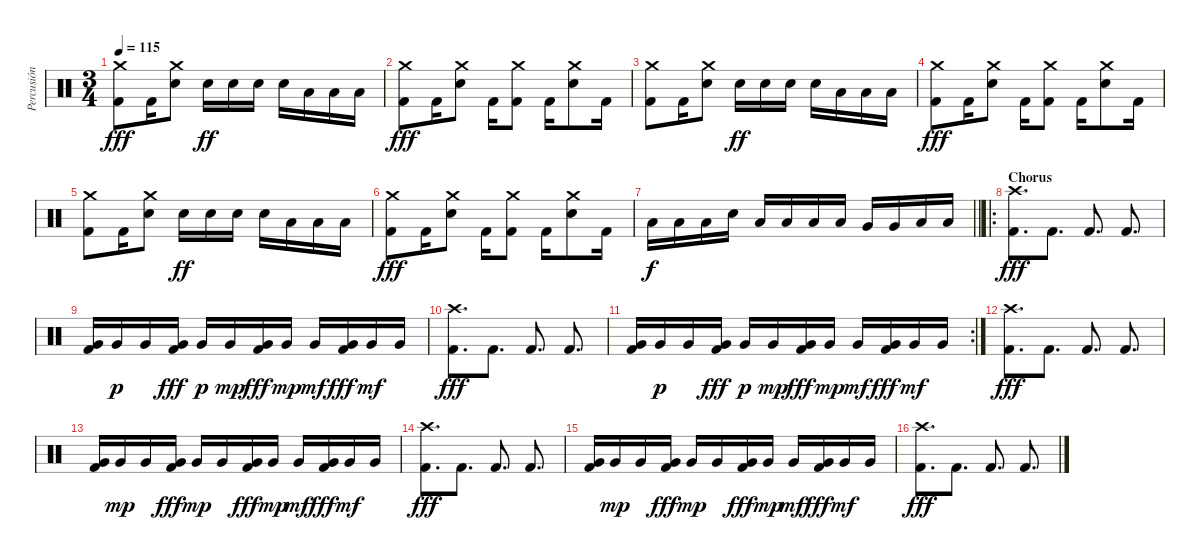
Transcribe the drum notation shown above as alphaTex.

\track ("Percusión" "Percusión") {instrument percussion}
\staff {score}
\articulation defaults
\ts (3 4)
\tempo 115
\clef neutral
\ks c
("Crash medium (hit)" "Kick (hit) 2").8{dy fff} "Kick (hit) 2".16 ("Crash medium (hit)" "Electric Snare (hit)").8 "Electric Snare (hit)".16{dy ff} "Electric Snare (hit)".16 "Electric Snare (hit)".16 "Electric Snare (hit)".16 "Low Tom (hit)".16 "Low Tom (hit)".16 "Low Tom (hit)".16 |
("Crash medium (hit)" "Kick (hit) 2").8{dy fff} "Kick (hit) 2".16 ("Crash medium (hit)" "Electric Snare (hit)").8 "Kick (hit) 2".16 ("Crash medium (hit)" "Kick (hit) 2").8 "Kick (hit) 2".16 ("Crash medium (hit)" "Electric Snare (hit)").8 "Kick (hit) 2".16 |
("Crash medium (hit)" "Kick (hit) 2").8 "Kick (hit) 2".16 ("Crash medium (hit)" "Electric Snare (hit)").8 "Electric Snare (hit)".16{dy ff} "Electric Snare (hit)".16 "Electric Snare (hit)".16 "Electric Snare (hit)".16 "Low Tom (hit)".16 "Low Tom (hit)".16 "Low Tom (hit)".16 |
("Crash medium (hit)" "Kick (hit) 2").8{dy fff} "Kick (hit) 2".16 ("Crash medium (hit)" "Electric Snare (hit)").8 "Kick (hit) 2".16 ("Crash medium (hit)" "Kick (hit) 2").8 "Kick (hit) 2".16 ("Crash medium (hit)" "Electric Snare (hit)").8 "Kick (hit) 2".16 |
("Crash medium (hit)" "Kick (hit) 2").8 "Kick (hit) 2".16 ("Crash medium (hit)" "Electric Snare (hit)").8 "Electric Snare (hit)".16{dy ff} "Electric Snare (hit)".16 "Electric Snare (hit)".16 "Electric Snare (hit)".16 "Low Tom (hit)".16 "Low Tom (hit)".16 "Low Tom (hit)".16 |
("Crash medium (hit)" "Kick (hit) 2").8{dy fff} "Kick (hit) 2".16 ("Crash medium (hit)" "Electric Snare (hit)").8 "Kick (hit) 2".16 ("Crash medium (hit)" "Kick (hit) 2").8 "Kick (hit) 2".16 ("Crash medium (hit)" "Electric Snare (hit)").8 "Kick (hit) 2".16 |
\barLineRight lightlight "Low Tom (hit)".16{dy f} "Low Tom (hit)".16 "Low Tom (hit)".16 "Electric Snare (hit)".16 "Low Tom (hit)".16 "Low Tom (hit)".16 "Low Tom (hit)".16 "Low Tom (hit)".16 "Very Low Tom (hit)".16 "Very Low Tom (hit)".16 "Low Floor Tom (hit)".16 "Low Floor Tom (hit)".16
|
\ro
\section ("" "Chorus")
("Crash high (hit)" "Kick (hit) 2").8{d dy fff} "Kick (hit) 2".8{d} "Kick (hit) 2".8{d} "Kick (hit) 2".8{d} |
("Very Low Tom (hit)" "Kick (hit) 2").16 "Very Low Tom (hit)".16{dy p} "Very Low Tom (hit)".16 ("Very Low Tom (hit)" "Kick (hit) 2").16{dy fff} "Very Low Tom (hit)".16{dy p} "Very Low Tom (hit)".16{dy mp} ("Very Low Tom (hit)" "Kick (hit) 2").16{dy fff} "Very Low Tom (hit)".16{dy mp} "Very Low Tom (hit)".16{dy mf} ("Very Low Tom (hit)" "Kick (hit) 2").16{dy fff} "Very Low Tom (hit)".16{dy mf} "Very Low Tom (hit)".16 |
("Crash high (hit)" "Kick (hit) 2").8{d dy fff} "Kick (hit) 2".8{d} "Kick (hit) 2".8{d} "Kick (hit) 2".8{d} |
\rc 2
("Very Low Tom (hit)" "Kick (hit) 2").16 "Very Low Tom (hit)".16{dy p} "Very Low Tom (hit)".16 ("Very Low Tom (hit)" "Kick (hit) 2").16{dy fff} "Very Low Tom (hit)".16{dy p} "Very Low Tom (hit)".16{dy mp} ("Very Low Tom (hit)" "Kick (hit) 2").16{dy fff} "Very Low Tom (hit)".16{dy mp} "Very Low Tom (hit)".16{dy mf} ("Very Low Tom (hit)" "Kick (hit) 2").16{dy fff} "Very Low Tom (hit)".16{dy mf} "Very Low Tom (hit)".16 |
("Crash high (hit)" "Kick (hit) 2").8{d dy fff} "Kick (hit) 2".8{d} "Kick (hit) 2".8{d} "Kick (hit) 2".8{d} |
("Very Low Tom (hit)" "Kick (hit) 2").16 "Very Low Tom (hit)".16{dy mp} "Very Low Tom (hit)".16 ("Very Low Tom (hit)" "Kick (hit) 2").16{dy fff} "Very Low Tom (hit)".16{dy mp} "Very Low Tom (hit)".16 ("Very Low Tom (hit)" "Kick (hit) 2").16{dy fff} "Very Low Tom (hit)".16{dy mp} "Very Low Tom (hit)".16{dy mf} ("Very Low Tom (hit)" "Kick (hit) 2").16{dy fff} "Very Low Tom (hit)".16{dy mf} "Very Low Tom (hit)".16 |
("Crash high (hit)" "Kick (hit) 2").8{d dy fff} "Kick (hit) 2".8{d} "Kick (hit) 2".8{d} "Kick (hit) 2".8{d} |
("Very Low Tom (hit)" "Kick (hit) 2").16 "Very Low Tom (hit)".16{dy mp} "Very Low Tom (hit)".16 ("Very Low Tom (hit)" "Kick (hit) 2").16{dy fff} "Very Low Tom (hit)".16{dy mp} "Very Low Tom (hit)".16 ("Very Low Tom (hit)" "Kick (hit) 2").16{dy fff} "Very Low Tom (hit)".16{dy mp} "Very Low Tom (hit)".16{dy mf} ("Very Low Tom (hit)" "Kick (hit) 2").16{dy fff} "Very Low Tom (hit)".16{dy mf} "Very Low Tom (hit)".16 |
("Crash high (hit)" "Kick (hit) 2").8{d dy fff} "Kick (hit) 2".8{d} "Kick (hit) 2".8{d} "Kick (hit) 2".8{d}
